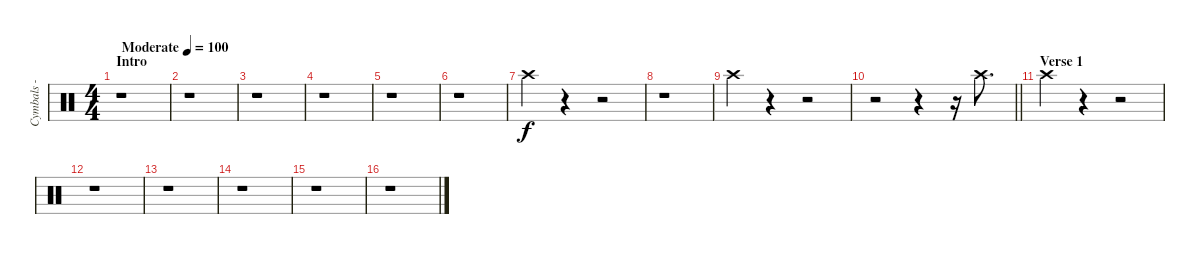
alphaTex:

\track ("Cymbals - crash - center" "Cymbals - ") {instrument percussion}
\staff {score}
\articulation defaults
\ts (4 4)
\section ("" "Intro")
\tempo (100 "Moderate")
\clef neutral
\ks c
r.1{dy f volume 8} |
r.1 |
r.1 |
r.1 |
r.1 |
r.1 |
"Crash high (hit)".4 r.4 r.2 |
r.1 |
"Crash high (hit)".4 r.4 r.2 |
\barLineRight lightlight
r.2 r.4 r.16 "Crash high (hit)".8{d} |
\section ("" "Verse 1")
"Crash high (hit)".4 r.4 r.2 |
r.1 |
r.1 |
r.1 |
r.1 |
r.1
